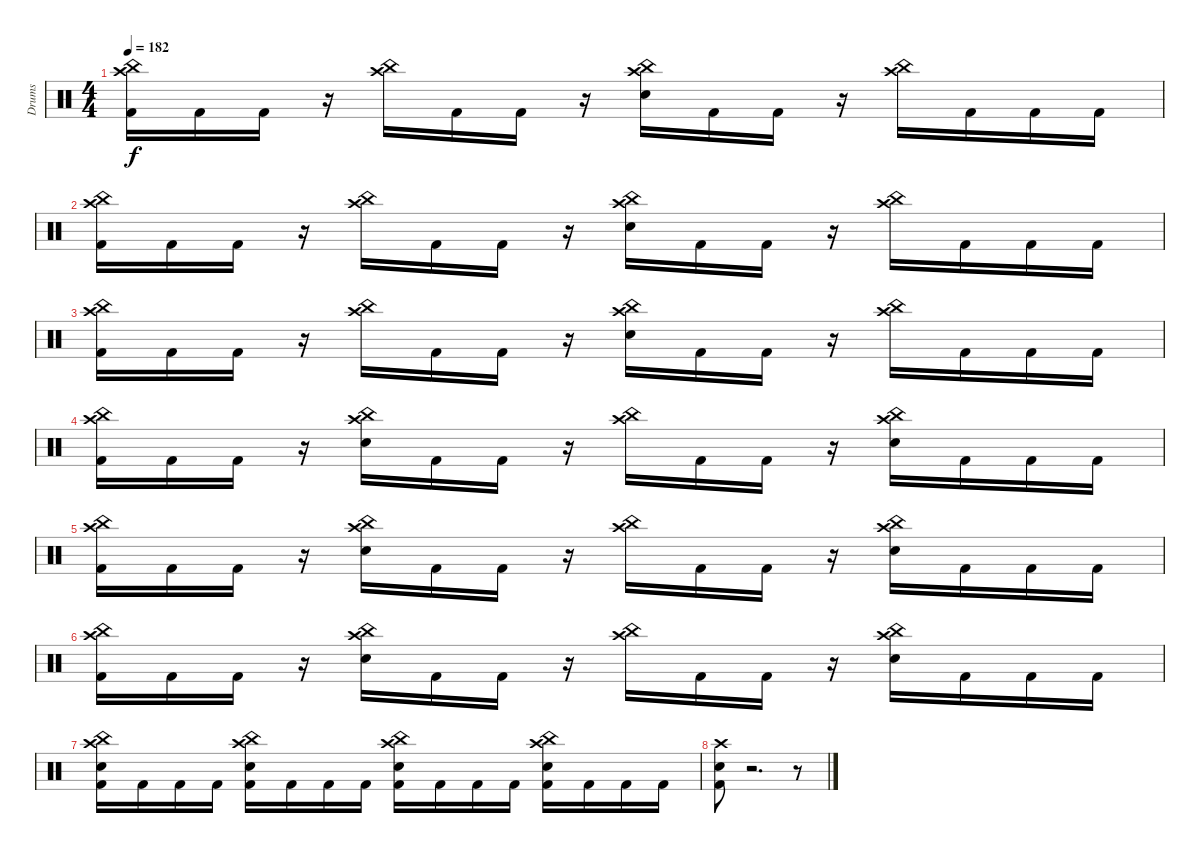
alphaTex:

\track ("Drums" "Drums") {instrument percussion}
\staff {score}
\articulation defaults
\ts (4 4)
\tempo 182
\clef neutral
\ks c
("China (hit)" "Crash high (hit)" "Kick (hit) 2").16{dy f} "Kick (hit) 2".16 "Kick (hit) 2".16 r.16 ("China (hit)" "Crash high (hit)").16 "Kick (hit) 2".16 "Kick (hit) 2".16 r.16 ("China (hit)" "Crash high (hit)" "Electric Snare (hit)").16 "Kick (hit) 2".16 "Kick (hit) 2".16 r.16 ("China (hit)" "Crash high (hit)").16 "Kick (hit) 2".16 "Kick (hit) 2".16 "Kick (hit) 2".16 |
("China (hit)" "Crash high (hit)" "Kick (hit) 2").16 "Kick (hit) 2".16 "Kick (hit) 2".16 r.16 ("China (hit)" "Crash high (hit)").16 "Kick (hit) 2".16 "Kick (hit) 2".16 r.16 ("China (hit)" "Crash high (hit)" "Electric Snare (hit)").16 "Kick (hit) 2".16 "Kick (hit) 2".16 r.16 ("China (hit)" "Crash high (hit)").16 "Kick (hit) 2".16 "Kick (hit) 2".16 "Kick (hit) 2".16 |
("China (hit)" "Crash high (hit)" "Kick (hit) 2").16 "Kick (hit) 2".16 "Kick (hit) 2".16 r.16 ("China (hit)" "Crash high (hit)").16 "Kick (hit) 2".16 "Kick (hit) 2".16 r.16 ("China (hit)" "Crash high (hit)" "Electric Snare (hit)").16 "Kick (hit) 2".16 "Kick (hit) 2".16 r.16 ("China (hit)" "Crash high (hit)").16 "Kick (hit) 2".16 "Kick (hit) 2".16 "Kick (hit) 2".16 |
("China (hit)" "Crash high (hit)" "Kick (hit) 2").16 "Kick (hit) 2".16 "Kick (hit) 2".16 r.16 ("China (hit)" "Crash high (hit)" "Electric Snare (hit)").16 "Kick (hit) 2".16 "Kick (hit) 2".16 r.16 ("China (hit)" "Crash high (hit)").16 "Kick (hit) 2".16 "Kick (hit) 2".16 r.16 ("China (hit)" "Crash high (hit)" "Electric Snare (hit)").16 "Kick (hit) 2".16 "Kick (hit) 2".16 "Kick (hit) 2".16 |
("China (hit)" "Crash high (hit)" "Kick (hit) 2").16 "Kick (hit) 2".16 "Kick (hit) 2".16 r.16 ("China (hit)" "Crash high (hit)" "Electric Snare (hit)").16 "Kick (hit) 2".16 "Kick (hit) 2".16 r.16 ("China (hit)" "Crash high (hit)").16 "Kick (hit) 2".16 "Kick (hit) 2".16 r.16 ("China (hit)" "Crash high (hit)" "Electric Snare (hit)").16 "Kick (hit) 2".16 "Kick (hit) 2".16 "Kick (hit) 2".16 |
("China (hit)" "Crash high (hit)" "Kick (hit) 2").16 "Kick (hit) 2".16 "Kick (hit) 2".16 r.16 ("China (hit)" "Crash high (hit)" "Electric Snare (hit)").16 "Kick (hit) 2".16 "Kick (hit) 2".16 r.16 ("China (hit)" "Crash high (hit)").16 "Kick (hit) 2".16 "Kick (hit) 2".16 r.16 ("China (hit)" "Crash high (hit)" "Electric Snare (hit)").16 "Kick (hit) 2".16 "Kick (hit) 2".16 "Kick (hit) 2".16 |
("China (hit)" "Crash high (hit)" "Electric Snare (hit)" "Kick (hit) 2").16 "Kick (hit) 2".16 "Kick (hit) 2".16 "Kick (hit) 2".16 ("China (hit)" "Crash high (hit)" "Electric Snare (hit)" "Kick (hit) 2").16 "Kick (hit) 2".16 "Kick (hit) 2".16 "Kick (hit) 2".16 ("China (hit)" "Crash high (hit)" "Electric Snare (hit)" "Kick (hit) 2").16 "Kick (hit) 2".16 "Kick (hit) 2".16 "Kick (hit) 2".16 ("China (hit)" "Crash high (hit)" "Electric Snare (hit)" "Kick (hit) 2").16 "Kick (hit) 2".16 "Kick (hit) 2".16 "Kick (hit) 2".16 |
("Crash high (hit)" "Electric Snare (hit)" "Kick (hit) 2").8 r.2{d} r.8
